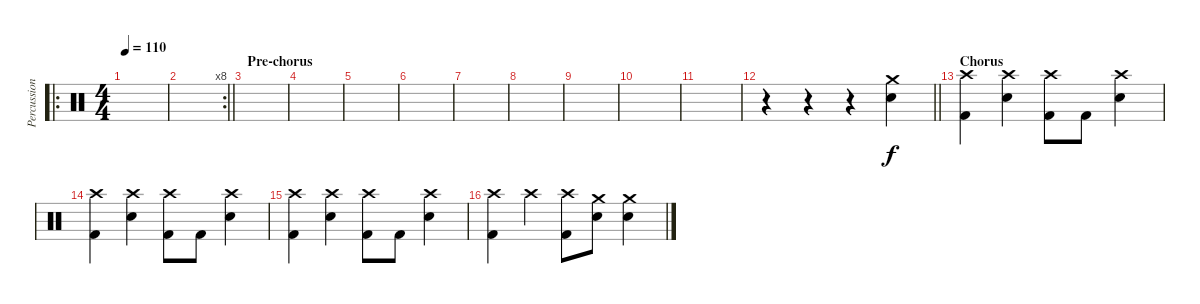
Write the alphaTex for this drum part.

\track ("Percussion" "Percussion") {instrument percussion}
\staff {score}
\articulation defaults
\ro
\ts (4 4)
\tempo 110
\clef neutral
\ks c
|
\rc 8
\barLineRight lightlight
|
\section ("" "Pre-chorus")
|
|
|
|
|
|
|
|
|
\barLineRight lightlight
r.4 r.4 r.4 ("Crash medium (hit)" "Electric Snare (hit)").4 |
\section ("" "Chorus")
("Crash high (hit)" "Kick (hit) 2").4 ("Crash high (hit)" "Electric Snare (hit)").4 ("Crash high (hit)" "Kick (hit) 2").8 "Kick (hit) 2".8 ("Crash high (hit)" "Electric Snare (hit)").4 |
("Crash high (hit)" "Kick (hit) 2").4 ("Crash high (hit)" "Electric Snare (hit)").4 ("Crash high (hit)" "Kick (hit) 2").8 "Kick (hit) 2".8 ("Crash high (hit)" "Electric Snare (hit)").4 |
("Crash high (hit)" "Kick (hit) 2").4 ("Crash high (hit)" "Electric Snare (hit)").4 ("Crash high (hit)" "Kick (hit) 2").8 "Kick (hit) 2".8 ("Crash high (hit)" "Electric Snare (hit)").4 |
("Crash high (hit)" "Kick (hit) 2").4 "Crash high (hit)".4 ("Crash high (hit)" "Kick (hit) 2").8 ("Crash medium (hit)" "Electric Snare (hit)").8 ("Crash medium (hit)" "Electric Snare (hit)").4
